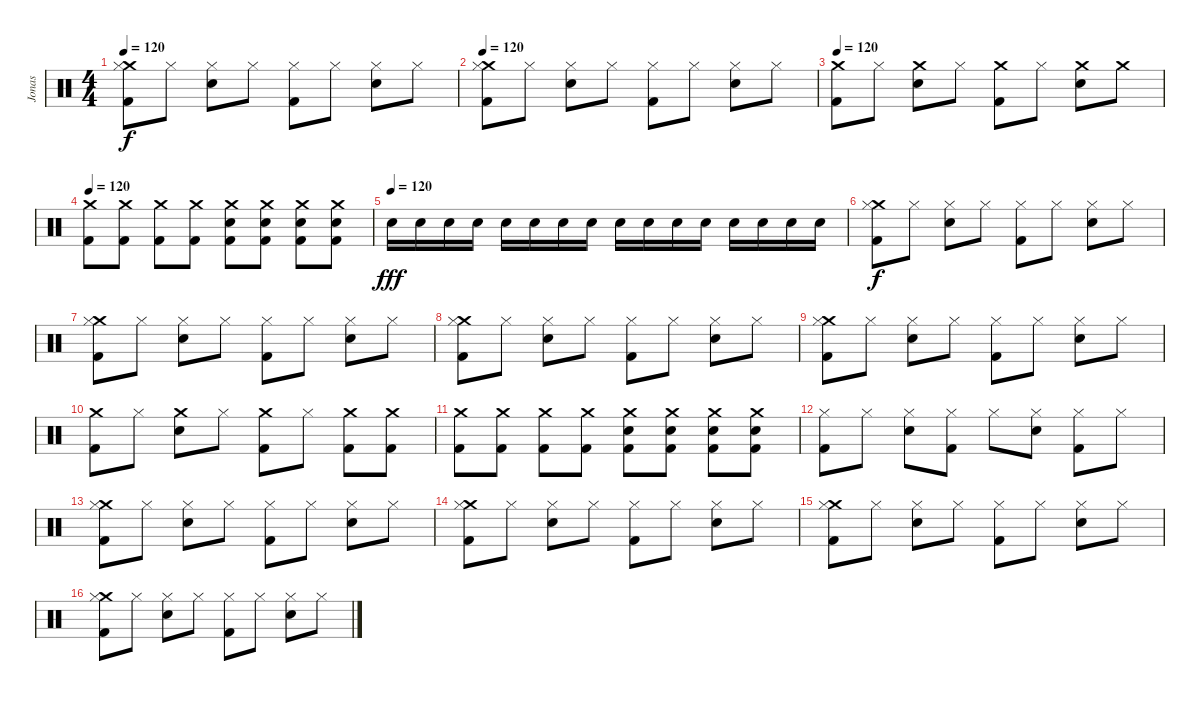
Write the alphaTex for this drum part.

\track ("Jonas" "Jonas") {instrument percussion}
\staff {score}
\articulation defaults
\ts (4 4)
\tempo 120
\clef neutral
\ks c
("Crash medium (hit)" "Hi-Hat (closed)" "Kick (hit) 2").8{dy f} "Hi-Hat (closed)".8 ("Hi-Hat (closed)" "Snare (hit) 2").8 "Hi-Hat (closed)".8 ("Hi-Hat (closed)" "Kick (hit) 2").8 "Hi-Hat (closed)".8 ("Hi-Hat (closed)" "Snare (hit) 2").8 "Hi-Hat (closed)".8 |
\tempo 120
("Crash medium (hit)" "Hi-Hat (closed)" "Kick (hit) 2").8 "Hi-Hat (closed)".8 ("Hi-Hat (closed)" "Snare (hit) 2").8 "Hi-Hat (closed)".8 ("Hi-Hat (closed)" "Kick (hit) 2").8 "Hi-Hat (closed)".8 ("Hi-Hat (closed)" "Snare (hit) 2").8 "Hi-Hat (closed)".8 |
\tempo 120
("Crash medium (hit)" "Kick (hit) 2").8 "Hi-Hat (closed)".8 ("Crash medium (hit)" "Snare (hit) 2").8 "Hi-Hat (closed)".8 ("Crash medium (hit)" "Kick (hit) 2").8 "Hi-Hat (closed)".8 ("Crash medium (hit)" "Snare (hit) 2").8 "Crash medium (hit)".8 |
\tempo 120
("Crash medium (hit)" "Kick (hit) 2").8 ("Crash medium (hit)" "Kick (hit) 2").8 ("Crash medium (hit)" "Kick (hit) 2").8 ("Crash medium (hit)" "Kick (hit) 2").8 ("Crash medium (hit)" "Snare (hit) 2" "Kick (hit) 2").8 ("Crash medium (hit)" "Snare (hit) 2" "Kick (hit) 2").8 ("Crash medium (hit)" "Snare (hit) 2" "Kick (hit) 2").8 ("Crash medium (hit)" "Snare (hit) 2" "Kick (hit) 2").8 |
\tempo (120)
"Snare (hit) 2".16{dy fff} "Snare (hit) 2".16 "Snare (hit) 2".16 "Snare (hit) 2".16 "Snare (hit) 2".16 "Snare (hit) 2".16 "Snare (hit) 2".16 "Snare (hit) 2".16 "Snare (hit) 2".16 "Snare (hit) 2".16 "Snare (hit) 2".16 "Snare (hit) 2".16 "Snare (hit) 2".16 "Snare (hit) 2".16 "Snare (hit) 2".16 "Snare (hit) 2".16 |
("Crash medium (hit)" "Hi-Hat (closed)" "Kick (hit) 2").8{dy f} "Hi-Hat (closed)".8 ("Hi-Hat (closed)" "Snare (hit) 2").8 "Hi-Hat (closed)".8 ("Hi-Hat (closed)" "Kick (hit) 2").8 "Hi-Hat (closed)".8 ("Hi-Hat (closed)" "Snare (hit) 2").8 "Hi-Hat (closed)".8 |
("Crash medium (hit)" "Hi-Hat (closed)" "Kick (hit) 2").8 "Hi-Hat (closed)".8 ("Hi-Hat (closed)" "Snare (hit) 2").8 "Hi-Hat (closed)".8 ("Hi-Hat (closed)" "Kick (hit) 2").8 "Hi-Hat (closed)".8 ("Hi-Hat (closed)" "Snare (hit) 2").8 "Hi-Hat (closed)".8 |
("Crash medium (hit)" "Hi-Hat (closed)" "Kick (hit) 2").8 "Hi-Hat (closed)".8 ("Hi-Hat (closed)" "Snare (hit) 2").8 "Hi-Hat (closed)".8 ("Hi-Hat (closed)" "Kick (hit) 2").8 "Hi-Hat (closed)".8 ("Hi-Hat (closed)" "Snare (hit) 2").8 "Hi-Hat (closed)".8 |
("Crash medium (hit)" "Hi-Hat (closed)" "Kick (hit) 2").8 "Hi-Hat (closed)".8 ("Hi-Hat (closed)" "Snare (hit) 2").8 "Hi-Hat (closed)".8 ("Hi-Hat (closed)" "Kick (hit) 2").8 "Hi-Hat (closed)".8 ("Hi-Hat (closed)" "Snare (hit) 2").8 "Hi-Hat (closed)".8 |
("Crash medium (hit)" "Kick (hit) 2").8 "Hi-Hat (closed)".8 ("Crash medium (hit)" "Snare (hit) 2").8 "Hi-Hat (closed)".8 ("Crash medium (hit)" "Kick (hit) 2").8 "Hi-Hat (closed)".8 ("Crash medium (hit)" "Kick (hit) 2").8 ("Crash medium (hit)" "Kick (hit) 2").8 |
("Crash medium (hit)" "Kick (hit) 2").8 ("Crash medium (hit)" "Kick (hit) 2").8 ("Crash medium (hit)" "Kick (hit) 2").8 ("Crash medium (hit)" "Kick (hit) 2").8 ("Crash medium (hit)" "Snare (hit) 2" "Kick (hit) 2").8 ("Crash medium (hit)" "Snare (hit) 2" "Kick (hit) 2").8 ("Crash medium (hit)" "Snare (hit) 2" "Kick (hit) 2").8 ("Crash medium (hit)" "Snare (hit) 2" "Kick (hit) 2").8 |
("Hi-Hat (closed)" "Kick (hit) 2").8 "Hi-Hat (closed)".8 ("Hi-Hat (closed)" "Snare (hit) 2").8 ("Hi-Hat (closed)" "Kick (hit) 2").8 "Hi-Hat (closed)".8 ("Hi-Hat (closed)" "Snare (hit) 2").8 ("Hi-Hat (closed)" "Kick (hit) 2").8 "Hi-Hat (closed)".8 |
("Crash medium (hit)" "Hi-Hat (closed)" "Kick (hit) 2").8 "Hi-Hat (closed)".8 ("Hi-Hat (closed)" "Snare (hit) 2").8 "Hi-Hat (closed)".8 ("Hi-Hat (closed)" "Kick (hit) 2").8 "Hi-Hat (closed)".8 ("Hi-Hat (closed)" "Snare (hit) 2").8 "Hi-Hat (closed)".8 |
("Crash medium (hit)" "Hi-Hat (closed)" "Kick (hit) 2").8 "Hi-Hat (closed)".8 ("Hi-Hat (closed)" "Snare (hit) 2").8 "Hi-Hat (closed)".8 ("Hi-Hat (closed)" "Kick (hit) 2").8 "Hi-Hat (closed)".8 ("Hi-Hat (closed)" "Snare (hit) 2").8 "Hi-Hat (closed)".8 |
("Crash medium (hit)" "Hi-Hat (closed)" "Kick (hit) 2").8 "Hi-Hat (closed)".8 ("Hi-Hat (closed)" "Snare (hit) 2").8 "Hi-Hat (closed)".8 ("Hi-Hat (closed)" "Kick (hit) 2").8 "Hi-Hat (closed)".8 ("Hi-Hat (closed)" "Snare (hit) 2").8 "Hi-Hat (closed)".8 |
("Crash medium (hit)" "Hi-Hat (closed)" "Kick (hit) 2").8 "Hi-Hat (closed)".8 ("Hi-Hat (closed)" "Snare (hit) 2").8 "Hi-Hat (closed)".8 ("Hi-Hat (closed)" "Kick (hit) 2").8 "Hi-Hat (closed)".8 ("Hi-Hat (closed)" "Snare (hit) 2").8 "Hi-Hat (closed)".8
